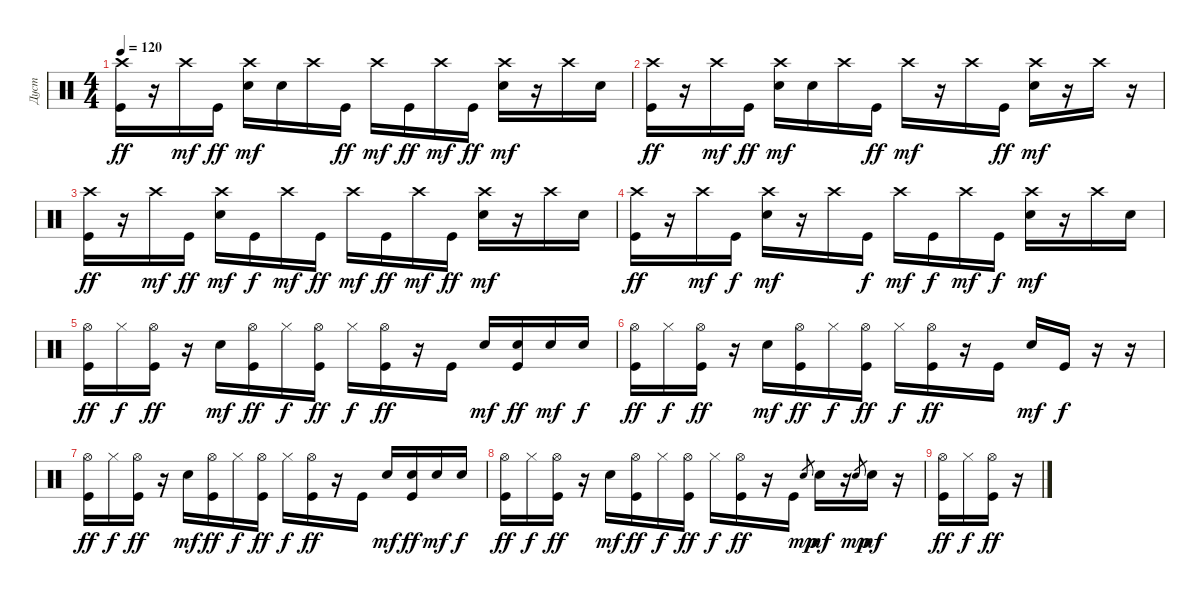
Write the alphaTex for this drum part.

\track ("Дуст" "Дуст") {instrument percussion}
\staff {score}
\articulation defaults
\ts (4 4)
\tempo 120
\clef neutral
\ks c
("Crash high (hit)" "Kick (hit)").16{dy ff} r.16 "Crash high (hit)".16{dy mf} "Kick (hit)".16{dy ff} ("Crash high (hit)" "Metronome (bell)").16{dy mf} "Metronome (bell)".16 "Crash high (hit)".16 "Kick (hit)".16{dy ff} "Crash high (hit)".16{dy mf} "Kick (hit)".16{dy ff} "Crash high (hit)".16{dy mf} "Kick (hit)".16{dy ff} ("Crash high (hit)" "Metronome (bell)").16{dy mf} r.16 "Crash high (hit)".16 "Metronome (bell)".16 |
("Crash high (hit)" "Kick (hit)").16{dy ff} r.16 "Crash high (hit)".16{dy mf} "Kick (hit)".16{dy ff} ("Crash high (hit)" "Metronome (bell)").16{dy mf} "Metronome (bell)".16 "Crash high (hit)".16 "Kick (hit)".16{dy ff} "Crash high (hit)".16{dy mf} r.16 "Crash high (hit)".16 "Kick (hit)".16{dy ff} ("Crash high (hit)" "Metronome (bell)").16{dy mf} r.16 "Crash high (hit)".16 r.16 |
("Crash high (hit)" "Kick (hit)").16{dy ff} r.16 "Crash high (hit)".16{dy mf} "Kick (hit)".16{dy ff} ("Crash high (hit)" "Metronome (bell)").16{dy mf} "Kick (hit)".16{dy f} "Crash high (hit)".16{dy mf} "Kick (hit)".16{dy ff} "Crash high (hit)".16{dy mf} "Kick (hit)".16{dy ff} "Crash high (hit)".16{dy mf} "Kick (hit)".16{dy ff} ("Crash high (hit)" "Metronome (bell)").16{dy mf} r.16 "Crash high (hit)".16 "Metronome (bell)".16 |
("Crash high (hit)" "Kick (hit)").16{dy ff} r.16 "Crash high (hit)".16{dy mf} "Kick (hit)".16{dy f} ("Crash high (hit)" "Metronome (bell)").16{dy mf} r.16 "Crash high (hit)".16 "Kick (hit)".16{dy f} "Crash high (hit)".16{dy mf} "Kick (hit)".16{dy f} "Crash high (hit)".16{dy mf} "Kick (hit)".16{dy f} ("Crash high (hit)" "Metronome (bell)").16{dy mf} r.16 "Crash high (hit)".16 "Metronome (bell)".16 |
("Hi-Hat (open)" "Kick (hit)").16{dy ff} "Hi-Hat (closed)".16{dy f} ("Hi-Hat (open)" "Kick (hit)").16{dy ff} r.16 "Metronome (bell)".16{dy mf} ("Hi-Hat (open)" "Kick (hit)").16{dy ff} "Hi-Hat (closed)".16{dy f} ("Hi-Hat (open)" "Kick (hit)").16{dy ff} "Hi-Hat (closed)".16{dy f} ("Hi-Hat (open)" "Kick (hit)").16{dy ff} r.16 "Kick (hit)".16 "Metronome (bell)".16{dy mf} ("Metronome (bell)" "Kick (hit)").16{dy ff} "Metronome (bell)".16{dy mf} "Metronome (bell)".16{dy f} |
("Hi-Hat (open)" "Kick (hit)").16{dy ff} "Hi-Hat (closed)".16{dy f} ("Hi-Hat (open)" "Kick (hit)").16{dy ff} r.16 "Metronome (bell)".16{dy mf} ("Hi-Hat (open)" "Kick (hit)").16{dy ff} "Hi-Hat (closed)".16{dy f} ("Hi-Hat (open)" "Kick (hit)").16{dy ff} "Hi-Hat (closed)".16{dy f} ("Hi-Hat (open)" "Kick (hit)").16{dy ff} r.16 "Kick (hit)".16 "Metronome (bell)".16{dy mf} "Kick (hit)".16{dy f} r.16 r.16 |
("Hi-Hat (open)" "Kick (hit)").16{dy ff} "Hi-Hat (closed)".16{dy f} ("Hi-Hat (open)" "Kick (hit)").16{dy ff} r.16 "Metronome (bell)".16{dy mf} ("Hi-Hat (open)" "Kick (hit)").16{dy ff} "Hi-Hat (closed)".16{dy f} ("Hi-Hat (open)" "Kick (hit)").16{dy ff} "Hi-Hat (closed)".16{dy f} ("Hi-Hat (open)" "Kick (hit)").16{dy ff} r.16 "Kick (hit)".16 "Metronome (bell)".16{dy mf} ("Metronome (bell)" "Kick (hit)").16{dy ff} "Metronome (bell)".16{dy mf} "Metronome (bell)".16{dy f} |
("Hi-Hat (open)" "Kick (hit)").16{dy ff} "Hi-Hat (closed)".16{dy f} ("Hi-Hat (open)" "Kick (hit)").16{dy ff} r.16 "Metronome (bell)".16{dy mf} ("Hi-Hat (open)" "Kick (hit)").16{dy ff} "Hi-Hat (closed)".16{dy f} ("Hi-Hat (open)" "Kick (hit)").16{dy ff} "Hi-Hat (closed)".16{dy f} ("Hi-Hat (open)" "Kick (hit)").16{dy ff} r.16 "Kick (hit)".16 "Metronome (bell)".8{gr dy mp} "Metronome (bell)".16{dy mf} r.16 "Metronome (bell)".8{gr dy mp} "Metronome (bell)".16{dy mf} r.16 |
("Hi-Hat (open)" "Kick (hit)").16{dy ff} "Hi-Hat (closed)".16{dy f} ("Hi-Hat (open)" "Kick (hit)").16{dy ff} r.16
